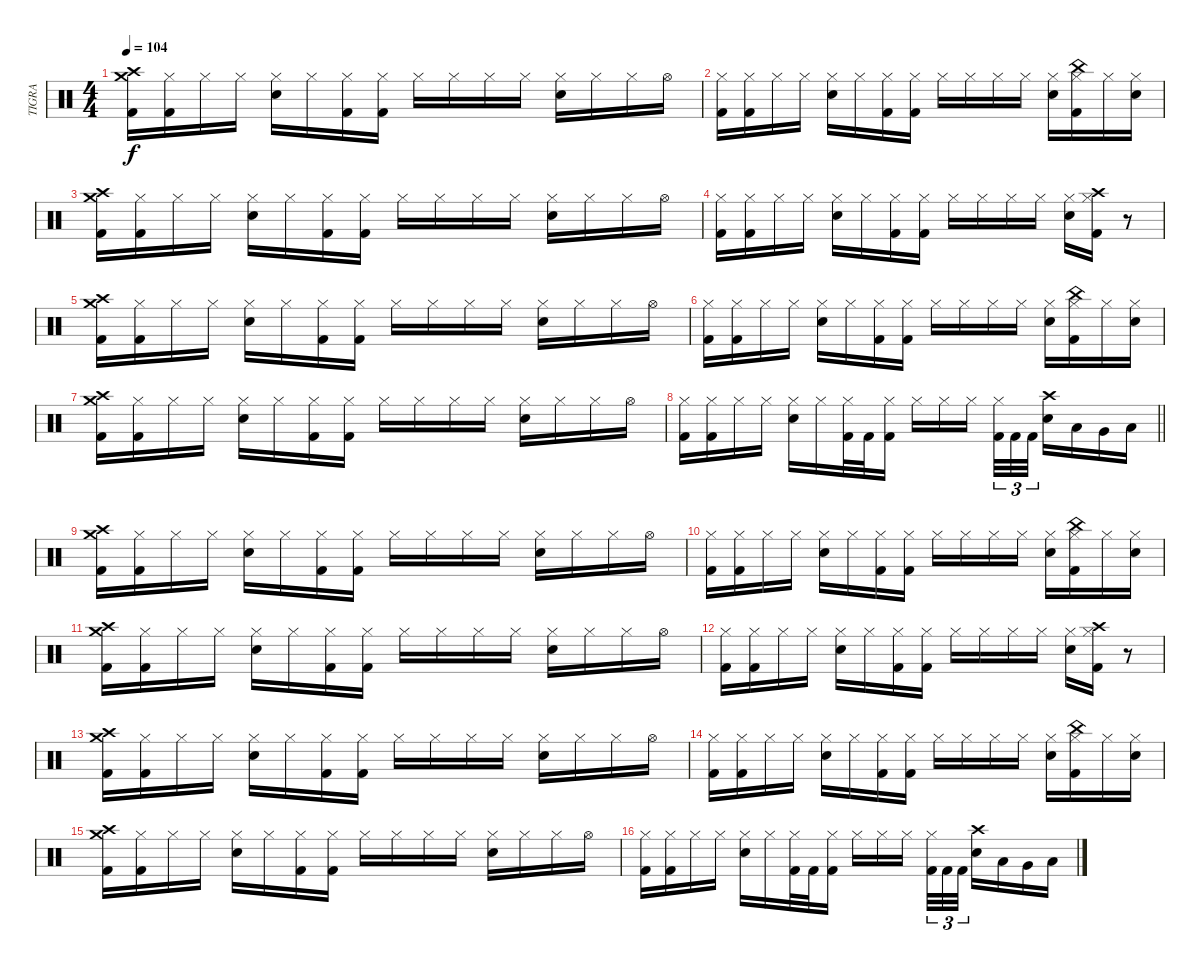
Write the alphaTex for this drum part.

\track ("TIGRA" "TIGRA") {instrument percussion}
\staff {score}
\articulation defaults
\ts (4 4)
\tempo 104
\clef neutral
\ks c
("Crash medium (hit)" "Crash high (hit)" "Kick (hit) 2").16{dy f} ("Hi-Hat (closed)" "Kick (hit) 2").16 "Hi-Hat (closed)".16 "Hi-Hat (closed)".16 ("Hi-Hat (closed)" "Snare (hit) 2").16 "Hi-Hat (closed)".16 ("Hi-Hat (closed)" "Kick (hit) 2").16 ("Hi-Hat (closed)" "Kick (hit) 2").16 "Hi-Hat (closed)".16 "Hi-Hat (closed)".16 "Hi-Hat (closed)".16 "Hi-Hat (closed)".16 ("Hi-Hat (closed)" "Snare (hit) 2").16 "Hi-Hat (closed)".16 "Hi-Hat (closed)".16 "Hi-Hat (open)".16 |
("Hi-Hat (closed)" "Kick (hit) 2").16 ("Hi-Hat (closed)" "Kick (hit) 2").16 "Hi-Hat (closed)".16 "Hi-Hat (closed)".16 ("Hi-Hat (closed)" "Snare (hit) 2").16 "Hi-Hat (closed)".16 ("Hi-Hat (closed)" "Kick (hit) 2").16 ("Hi-Hat (closed)" "Kick (hit) 2").16 "Hi-Hat (closed)".16 "Hi-Hat (closed)".16 "Hi-Hat (closed)".16 "Hi-Hat (closed)".16 ("Hi-Hat (closed)" "Snare (hit) 2").16 ("Hi-Hat (closed)" "China (hit)" "Kick (hit) 2").16 "Hi-Hat (closed)".16 ("Hi-Hat (closed)" "Snare (hit) 2").16 |
("Crash medium (hit)" "Crash high (hit)" "Kick (hit) 2").16 ("Hi-Hat (closed)" "Kick (hit) 2").16 "Hi-Hat (closed)".16 "Hi-Hat (closed)".16 ("Hi-Hat (closed)" "Snare (hit) 2").16 "Hi-Hat (closed)".16 ("Hi-Hat (closed)" "Kick (hit) 2").16 ("Hi-Hat (closed)" "Kick (hit) 2").16 "Hi-Hat (closed)".16 "Hi-Hat (closed)".16 "Hi-Hat (closed)".16 "Hi-Hat (closed)".16 ("Hi-Hat (closed)" "Snare (hit) 2").16 "Hi-Hat (closed)".16 "Hi-Hat (closed)".16 "Hi-Hat (open)".16 |
("Hi-Hat (closed)" "Kick (hit) 2").16 ("Hi-Hat (closed)" "Kick (hit) 2").16 "Hi-Hat (closed)".16 "Hi-Hat (closed)".16 ("Hi-Hat (closed)" "Snare (hit) 2").16 "Hi-Hat (closed)".16 ("Hi-Hat (closed)" "Kick (hit) 2").16 ("Hi-Hat (closed)" "Kick (hit) 2").16 "Hi-Hat (closed)".16 "Hi-Hat (closed)".16 "Hi-Hat (closed)".16 "Hi-Hat (closed)".16 ("Hi-Hat (closed)" "Snare (hit) 2").16 ("Hi-Hat (closed)" "Crash high (hit)" "Kick (hit) 2").16 r.8 |
("Crash medium (hit)" "Crash high (hit)" "Kick (hit) 2").16 ("Hi-Hat (closed)" "Kick (hit) 2").16 "Hi-Hat (closed)".16 "Hi-Hat (closed)".16 ("Hi-Hat (closed)" "Snare (hit) 2").16 "Hi-Hat (closed)".16 ("Hi-Hat (closed)" "Kick (hit) 2").16 ("Hi-Hat (closed)" "Kick (hit) 2").16 "Hi-Hat (closed)".16 "Hi-Hat (closed)".16 "Hi-Hat (closed)".16 "Hi-Hat (closed)".16 ("Hi-Hat (closed)" "Snare (hit) 2").16 "Hi-Hat (closed)".16 "Hi-Hat (closed)".16 "Hi-Hat (open)".16 |
("Hi-Hat (closed)" "Kick (hit) 2").16 ("Hi-Hat (closed)" "Kick (hit) 2").16 "Hi-Hat (closed)".16 "Hi-Hat (closed)".16 ("Hi-Hat (closed)" "Snare (hit) 2").16 "Hi-Hat (closed)".16 ("Hi-Hat (closed)" "Kick (hit) 2").16 ("Hi-Hat (closed)" "Kick (hit) 2").16 "Hi-Hat (closed)".16 "Hi-Hat (closed)".16 "Hi-Hat (closed)".16 "Hi-Hat (closed)".16 ("Hi-Hat (closed)" "Snare (hit) 2").16 ("Hi-Hat (closed)" "China (hit)" "Kick (hit) 2").16 "Hi-Hat (closed)".16 ("Hi-Hat (closed)" "Snare (hit) 2").16 |
("Crash medium (hit)" "Crash high (hit)" "Kick (hit) 2").16 ("Hi-Hat (closed)" "Kick (hit) 2").16 "Hi-Hat (closed)".16 "Hi-Hat (closed)".16 ("Hi-Hat (closed)" "Snare (hit) 2").16 "Hi-Hat (closed)".16 ("Hi-Hat (closed)" "Kick (hit) 2").16 ("Hi-Hat (closed)" "Kick (hit) 2").16 "Hi-Hat (closed)".16 "Hi-Hat (closed)".16 "Hi-Hat (closed)".16 "Hi-Hat (closed)".16 ("Hi-Hat (closed)" "Snare (hit) 2").16 "Hi-Hat (closed)".16 "Hi-Hat (closed)".16 "Hi-Hat (open)".16 |
\barLineRight lightlight
("Hi-Hat (closed)" "Kick (hit) 2").16 ("Hi-Hat (closed)" "Kick (hit) 2").16 "Hi-Hat (closed)".16 "Hi-Hat (closed)".16 ("Hi-Hat (closed)" "Snare (hit) 2").16 "Hi-Hat (closed)".16 ("Hi-Hat (closed)" "Kick (hit) 2").32 "Kick (hit) 2".32 ("Hi-Hat (closed)" "Kick (hit) 2").16 "Hi-Hat (closed)".16 "Hi-Hat (closed)".16 "Hi-Hat (closed)".16{beam splitsecondary} ("Hi-Hat (closed)" "Kick (hit) 2").32{tu (3 2)} "Kick (hit) 2".32{tu (3 2)} "Kick (hit) 2".32{tu (3 2)} ("Crash high (hit)" "Snare (hit) 2").16 "Low Tom (hit)".16 "Very Low Tom (hit)".16 "Low Floor Tom (hit)".16 |
("Crash medium (hit)" "Crash high (hit)" "Kick (hit) 2").16 ("Hi-Hat (closed)" "Kick (hit) 2").16 "Hi-Hat (closed)".16 "Hi-Hat (closed)".16 ("Hi-Hat (closed)" "Snare (hit) 2").16 "Hi-Hat (closed)".16 ("Hi-Hat (closed)" "Kick (hit) 2").16 ("Hi-Hat (closed)" "Kick (hit) 2").16 "Hi-Hat (closed)".16 "Hi-Hat (closed)".16 "Hi-Hat (closed)".16 "Hi-Hat (closed)".16 ("Hi-Hat (closed)" "Snare (hit) 2").16 "Hi-Hat (closed)".16 "Hi-Hat (closed)".16 "Hi-Hat (open)".16 |
("Hi-Hat (closed)" "Kick (hit) 2").16 ("Hi-Hat (closed)" "Kick (hit) 2").16 "Hi-Hat (closed)".16 "Hi-Hat (closed)".16 ("Hi-Hat (closed)" "Snare (hit) 2").16 "Hi-Hat (closed)".16 ("Hi-Hat (closed)" "Kick (hit) 2").16 ("Hi-Hat (closed)" "Kick (hit) 2").16 "Hi-Hat (closed)".16 "Hi-Hat (closed)".16 "Hi-Hat (closed)".16 "Hi-Hat (closed)".16 ("Hi-Hat (closed)" "Snare (hit) 2").16 ("Hi-Hat (closed)" "China (hit)" "Kick (hit) 2").16 "Hi-Hat (closed)".16 ("Hi-Hat (closed)" "Snare (hit) 2").16 |
("Crash medium (hit)" "Crash high (hit)" "Kick (hit) 2").16 ("Hi-Hat (closed)" "Kick (hit) 2").16 "Hi-Hat (closed)".16 "Hi-Hat (closed)".16 ("Hi-Hat (closed)" "Snare (hit) 2").16 "Hi-Hat (closed)".16 ("Hi-Hat (closed)" "Kick (hit) 2").16 ("Hi-Hat (closed)" "Kick (hit) 2").16 "Hi-Hat (closed)".16 "Hi-Hat (closed)".16 "Hi-Hat (closed)".16 "Hi-Hat (closed)".16 ("Hi-Hat (closed)" "Snare (hit) 2").16 "Hi-Hat (closed)".16 "Hi-Hat (closed)".16 "Hi-Hat (open)".16 |
("Hi-Hat (closed)" "Kick (hit) 2").16 ("Hi-Hat (closed)" "Kick (hit) 2").16 "Hi-Hat (closed)".16 "Hi-Hat (closed)".16 ("Hi-Hat (closed)" "Snare (hit) 2").16 "Hi-Hat (closed)".16 ("Hi-Hat (closed)" "Kick (hit) 2").16 ("Hi-Hat (closed)" "Kick (hit) 2").16 "Hi-Hat (closed)".16 "Hi-Hat (closed)".16 "Hi-Hat (closed)".16 "Hi-Hat (closed)".16 ("Hi-Hat (closed)" "Snare (hit) 2").16 ("Hi-Hat (closed)" "Crash high (hit)" "Kick (hit) 2").16 r.8 |
("Crash medium (hit)" "Crash high (hit)" "Kick (hit) 2").16 ("Hi-Hat (closed)" "Kick (hit) 2").16 "Hi-Hat (closed)".16 "Hi-Hat (closed)".16 ("Hi-Hat (closed)" "Snare (hit) 2").16 "Hi-Hat (closed)".16 ("Hi-Hat (closed)" "Kick (hit) 2").16 ("Hi-Hat (closed)" "Kick (hit) 2").16 "Hi-Hat (closed)".16 "Hi-Hat (closed)".16 "Hi-Hat (closed)".16 "Hi-Hat (closed)".16 ("Hi-Hat (closed)" "Snare (hit) 2").16 "Hi-Hat (closed)".16 "Hi-Hat (closed)".16 "Hi-Hat (open)".16 |
("Hi-Hat (closed)" "Kick (hit) 2").16 ("Hi-Hat (closed)" "Kick (hit) 2").16 "Hi-Hat (closed)".16 "Hi-Hat (closed)".16 ("Hi-Hat (closed)" "Snare (hit) 2").16 "Hi-Hat (closed)".16 ("Hi-Hat (closed)" "Kick (hit) 2").16 ("Hi-Hat (closed)" "Kick (hit) 2").16 "Hi-Hat (closed)".16 "Hi-Hat (closed)".16 "Hi-Hat (closed)".16 "Hi-Hat (closed)".16 ("Hi-Hat (closed)" "Snare (hit) 2").16 ("Hi-Hat (closed)" "China (hit)" "Kick (hit) 2").16 "Hi-Hat (closed)".16 ("Hi-Hat (closed)" "Snare (hit) 2").16 |
("Crash medium (hit)" "Crash high (hit)" "Kick (hit) 2").16 ("Hi-Hat (closed)" "Kick (hit) 2").16 "Hi-Hat (closed)".16 "Hi-Hat (closed)".16 ("Hi-Hat (closed)" "Snare (hit) 2").16 "Hi-Hat (closed)".16 ("Hi-Hat (closed)" "Kick (hit) 2").16 ("Hi-Hat (closed)" "Kick (hit) 2").16 "Hi-Hat (closed)".16 "Hi-Hat (closed)".16 "Hi-Hat (closed)".16 "Hi-Hat (closed)".16 ("Hi-Hat (closed)" "Snare (hit) 2").16 "Hi-Hat (closed)".16 "Hi-Hat (closed)".16 "Hi-Hat (open)".16 |
("Hi-Hat (closed)" "Kick (hit) 2").16 ("Hi-Hat (closed)" "Kick (hit) 2").16 "Hi-Hat (closed)".16 "Hi-Hat (closed)".16 ("Hi-Hat (closed)" "Snare (hit) 2").16 "Hi-Hat (closed)".16 ("Hi-Hat (closed)" "Kick (hit) 2").32 "Kick (hit) 2".32 ("Hi-Hat (closed)" "Kick (hit) 2").16 "Hi-Hat (closed)".16 "Hi-Hat (closed)".16 "Hi-Hat (closed)".16{beam splitsecondary} ("Hi-Hat (closed)" "Kick (hit) 2").32{tu (3 2)} "Kick (hit) 2".32{tu (3 2)} "Kick (hit) 2".32{tu (3 2)} ("Crash high (hit)" "Snare (hit) 2").16 "Low Tom (hit)".16 "Very Low Tom (hit)".16 "Low Floor Tom (hit)".16
